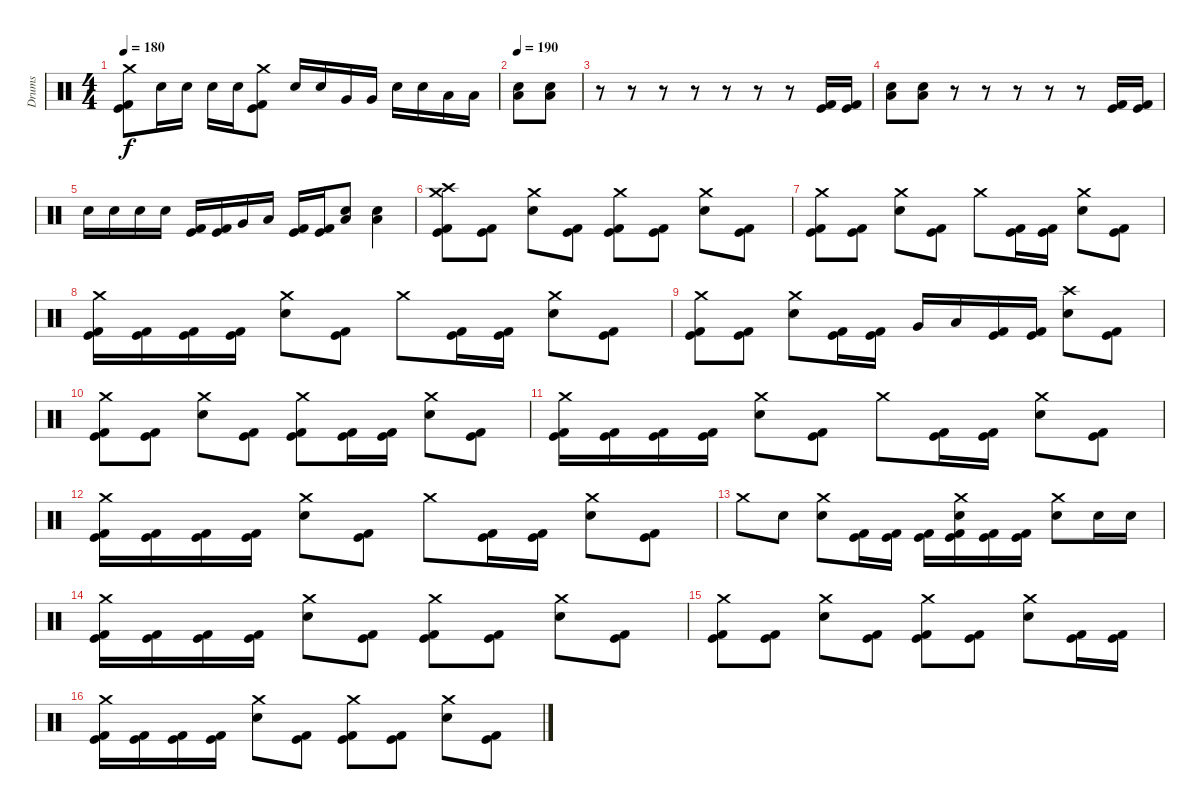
\track ("Drums" "Drums") {instrument percussion}
\staff {score}
\articulation defaults
\ts (4 4)
\tempo 180
\clef neutral
\ks c
("Crash medium (hit)" "Kick (hit)" "Kick (hit) 2").8{dy f} "Electric Snare (hit)".16 "Electric Snare (hit)".16 "Electric Snare (hit)".16 "Electric Snare (hit)".16 ("Crash medium (hit)" "Kick (hit)" "Kick (hit) 2").8 "Electric Snare (hit)".16 "Electric Snare (hit)".16 "Very Low Tom (hit)".16 "Very Low Tom (hit)".16 "Electric Snare (hit)".16 "Electric Snare (hit)".16 "Low Floor Tom (hit)".16 "Low Floor Tom (hit)".16 |
\tempo 190
("Electric Snare (hit)" "Low Floor Tom (hit)").8 ("Electric Snare (hit)" "Low Floor Tom (hit)").8 |
r.8 r.8 r.8 r.8 r.8 r.8 r.8 ("Kick (hit)" "Kick (hit) 2").16 ("Kick (hit)" "Kick (hit) 2").16 |
("Electric Snare (hit)" "Low Floor Tom (hit)").8 ("Electric Snare (hit)" "Low Floor Tom (hit)").8 r.8 r.8 r.8 r.8 r.8 ("Kick (hit)" "Kick (hit) 2").16 ("Kick (hit)" "Kick (hit) 2").16 |
"Electric Snare (hit)".16 "Electric Snare (hit)".16 "Electric Snare (hit)".16 "Electric Snare (hit)".16 ("Kick (hit)" "Kick (hit) 2").16 ("Kick (hit)" "Kick (hit) 2").16 "Very Low Tom (hit)".16 "Low Floor Tom (hit)".16 ("Kick (hit)" "Kick (hit) 2").16 ("Kick (hit)" "Kick (hit) 2").16 ("Electric Snare (hit)" "Low Floor Tom (hit)").8 ("Electric Snare (hit)" "Low Floor Tom (hit)").4 |
("Crash high (hit)" "Crash medium (hit)" "Kick (hit)" "Kick (hit) 2").8 ("Kick (hit)" "Kick (hit) 2").8 ("Crash medium (hit)" "Electric Snare (hit)").8 ("Kick (hit)" "Kick (hit) 2").8 ("Crash medium (hit)" "Kick (hit)" "Kick (hit) 2").8 ("Kick (hit)" "Kick (hit) 2").8 ("Crash medium (hit)" "Electric Snare (hit)").8 ("Kick (hit)" "Kick (hit) 2").8 |
("Crash medium (hit)" "Kick (hit)" "Kick (hit) 2").8 ("Kick (hit)" "Kick (hit) 2").8 ("Crash medium (hit)" "Electric Snare (hit)").8 ("Kick (hit)" "Kick (hit) 2").8 "Crash medium (hit)".8 ("Kick (hit)" "Kick (hit) 2").16 ("Kick (hit)" "Kick (hit) 2").16 ("Crash medium (hit)" "Electric Snare (hit)").8 ("Kick (hit)" "Kick (hit) 2").8 |
("Crash medium (hit)" "Kick (hit)" "Kick (hit) 2").16 ("Kick (hit)" "Kick (hit) 2").16 ("Kick (hit)" "Kick (hit) 2").16 ("Kick (hit)" "Kick (hit) 2").16 ("Crash medium (hit)" "Electric Snare (hit)").8 ("Kick (hit)" "Kick (hit) 2").8 "Crash medium (hit)".8 ("Kick (hit)" "Kick (hit) 2").16 ("Kick (hit)" "Kick (hit) 2").16 ("Crash medium (hit)" "Electric Snare (hit)").8 ("Kick (hit)" "Kick (hit) 2").8 |
("Crash medium (hit)" "Kick (hit)" "Kick (hit) 2").8 ("Kick (hit)" "Kick (hit) 2").8 ("Crash medium (hit)" "Electric Snare (hit)").8 ("Kick (hit)" "Kick (hit) 2").16 ("Kick (hit)" "Kick (hit) 2").16 "Very Low Tom (hit)".16 "Low Floor Tom (hit)".16 ("Kick (hit)" "Kick (hit) 2").16 ("Kick (hit)" "Kick (hit) 2").16 ("Crash high (hit)" "Electric Snare (hit)").8 ("Kick (hit)" "Kick (hit) 2").8 |
("Crash medium (hit)" "Kick (hit)" "Kick (hit) 2").8 ("Kick (hit)" "Kick (hit) 2").8 ("Crash medium (hit)" "Electric Snare (hit)").8 ("Kick (hit)" "Kick (hit) 2").8 ("Crash medium (hit)" "Kick (hit)" "Kick (hit) 2").8 ("Kick (hit)" "Kick (hit) 2").16 ("Kick (hit)" "Kick (hit) 2").16 ("Crash medium (hit)" "Electric Snare (hit)").8 ("Kick (hit)" "Kick (hit) 2").8 |
("Crash medium (hit)" "Kick (hit)" "Kick (hit) 2").16 ("Kick (hit)" "Kick (hit) 2").16 ("Kick (hit)" "Kick (hit) 2").16 ("Kick (hit)" "Kick (hit) 2").16 ("Crash medium (hit)" "Electric Snare (hit)").8 ("Kick (hit)" "Kick (hit) 2").8 "Crash medium (hit)".8 ("Kick (hit)" "Kick (hit) 2").16 ("Kick (hit)" "Kick (hit) 2").16 ("Crash medium (hit)" "Electric Snare (hit)").8 ("Kick (hit)" "Kick (hit) 2").8 |
("Crash medium (hit)" "Kick (hit)" "Kick (hit) 2").16 ("Kick (hit)" "Kick (hit) 2").16 ("Kick (hit)" "Kick (hit) 2").16 ("Kick (hit)" "Kick (hit) 2").16 ("Crash medium (hit)" "Electric Snare (hit)").8 ("Kick (hit)" "Kick (hit) 2").8 "Crash medium (hit)".8 ("Kick (hit)" "Kick (hit) 2").16 ("Kick (hit)" "Kick (hit) 2").16 ("Crash medium (hit)" "Electric Snare (hit)").8 ("Kick (hit)" "Kick (hit) 2").8 |
"Crash medium (hit)".8 "Electric Snare (hit)".8 ("Crash medium (hit)" "Electric Snare (hit)").8 ("Kick (hit)" "Kick (hit) 2").16 ("Kick (hit)" "Kick (hit) 2").16 ("Kick (hit)" "Kick (hit) 2").16 ("Crash medium (hit)" "Electric Snare (hit)" "Kick (hit)" "Kick (hit) 2").16 ("Kick (hit)" "Kick (hit) 2").16 ("Kick (hit)" "Kick (hit) 2").16 ("Crash medium (hit)" "Electric Snare (hit)").8 "Electric Snare (hit)".16 "Electric Snare (hit)".16 |
("Crash medium (hit)" "Kick (hit)" "Kick (hit) 2").16 ("Kick (hit)" "Kick (hit) 2").16 ("Kick (hit)" "Kick (hit) 2").16 ("Kick (hit)" "Kick (hit) 2").16 ("Crash medium (hit)" "Electric Snare (hit)").8 ("Kick (hit)" "Kick (hit) 2").8 ("Crash medium (hit)" "Kick (hit)" "Kick (hit) 2").8 ("Kick (hit)" "Kick (hit) 2").8 ("Crash medium (hit)" "Electric Snare (hit)").8 ("Kick (hit)" "Kick (hit) 2").8 |
("Crash medium (hit)" "Kick (hit)" "Kick (hit) 2").8 ("Kick (hit)" "Kick (hit) 2").8 ("Crash medium (hit)" "Electric Snare (hit)").8 ("Kick (hit)" "Kick (hit) 2").8 ("Crash medium (hit)" "Kick (hit)" "Kick (hit) 2").8 ("Kick (hit)" "Kick (hit) 2").8 ("Crash medium (hit)" "Electric Snare (hit)").8 ("Kick (hit)" "Kick (hit) 2").16 ("Kick (hit)" "Kick (hit) 2").16 |
("Crash medium (hit)" "Kick (hit)" "Kick (hit) 2").16 ("Kick (hit)" "Kick (hit) 2").16 ("Kick (hit)" "Kick (hit) 2").16 ("Kick (hit)" "Kick (hit) 2").16 ("Crash medium (hit)" "Electric Snare (hit)").8 ("Kick (hit)" "Kick (hit) 2").8 ("Crash medium (hit)" "Kick (hit)" "Kick (hit) 2").8 ("Kick (hit)" "Kick (hit) 2").8 ("Crash medium (hit)" "Electric Snare (hit)").8 ("Kick (hit)" "Kick (hit) 2").8
